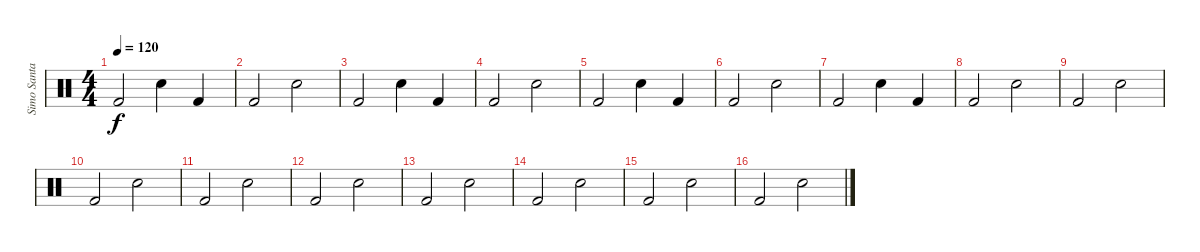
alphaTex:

\track ("Simo Santapukki" "Simo Santa") {instrument percussion}
\staff {score}
\articulation defaults
\ts (4 4)
\tempo 120
\clef neutral
\ks c "Kick (hit) 2".2{dy f} "Electric Snare (hit)".4 "Kick (hit) 2".4
|
"Kick (hit) 2".2 "Electric Snare (hit)".2 |
"Kick (hit) 2".2 "Electric Snare (hit)".4 "Kick (hit) 2".4 |
"Kick (hit) 2".2 "Electric Snare (hit)".2 |
"Kick (hit) 2".2 "Electric Snare (hit)".4 "Kick (hit) 2".4 |
"Kick (hit) 2".2 "Electric Snare (hit)".2 |
"Kick (hit) 2".2 "Electric Snare (hit)".4 "Kick (hit) 2".4 |
"Kick (hit) 2".2 "Electric Snare (hit)".2 |
"Kick (hit) 2".2 "Electric Snare (hit)".2 |
"Kick (hit) 2".2 "Electric Snare (hit)".2 |
"Kick (hit) 2".2 "Electric Snare (hit)".2 |
"Kick (hit) 2".2 "Electric Snare (hit)".2 |
"Kick (hit) 2".2 "Electric Snare (hit)".2 |
"Kick (hit) 2".2 "Electric Snare (hit)".2 |
"Kick (hit) 2".2 "Electric Snare (hit)".2 |
"Kick (hit) 2".2 "Electric Snare (hit)".2
